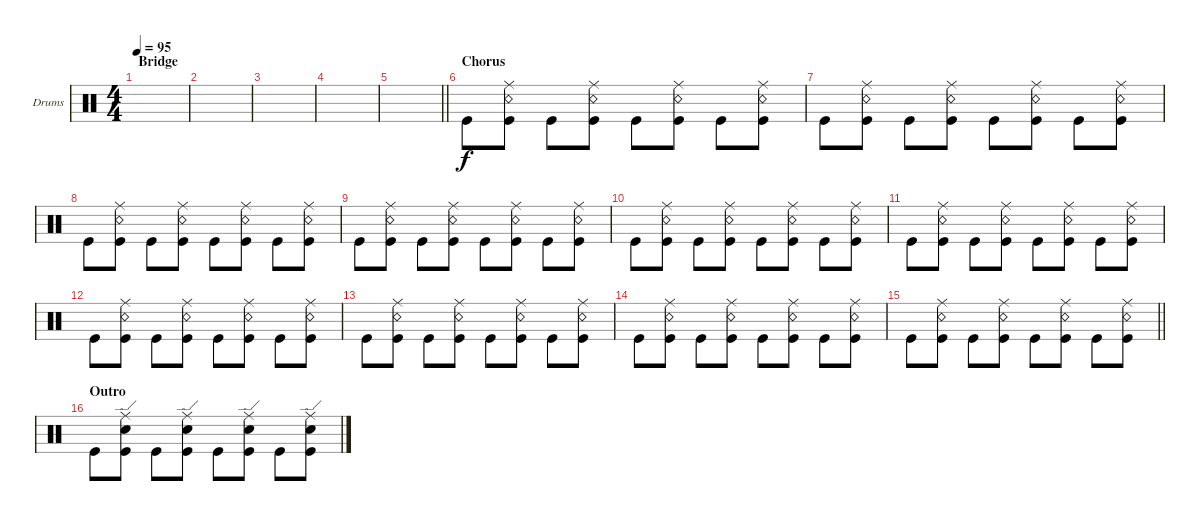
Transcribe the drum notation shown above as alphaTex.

\bracketExtendMode groupsimilarinstruments
\firstSystemTrackNameOrientation horizontal
\otherSystemsTrackNameOrientation horizontal
\track ("Drumkit" "Drums") {instrument percussion}
\staff {score}
\articulation defaults
\ts (4 4)
\section ("" "Bridge")
\tempo 95
\clef neutral
\scale
0.333333
\ks c
|
\scale
0.333333 |
\scale
0.333333 |
\scale
0.333333 |
\scale
0.333333
\barLineRight lightlight
|
\section ("" "Chorus")
\scale
0.333333 "Kick (hit)".8 ("Kick (hit)" "Snare (rim shot)" "Ride (middle)").8 "Kick (hit)".8 ("Kick (hit)" "Snare (rim shot)" "Ride (middle)").8 "Kick (hit)".8 ("Kick (hit)" "Snare (rim shot)" "Ride (middle)").8 "Kick (hit)".8 ("Kick (hit)" "Snare (rim shot)" "Ride (middle)").8 |
\scale
0.333333 "Kick (hit)".8 ("Kick (hit)" "Snare (rim shot)" "Ride (middle)").8 "Kick (hit)".8 ("Kick (hit)" "Snare (rim shot)" "Ride (middle)").8 "Kick (hit)".8 ("Kick (hit)" "Snare (rim shot)" "Ride (middle)").8 "Kick (hit)".8 ("Kick (hit)" "Snare (rim shot)" "Ride (middle)").8 |
"Kick (hit)".8 ("Kick (hit)" "Snare (rim shot)" "Ride (middle)").8 "Kick (hit)".8 ("Kick (hit)" "Snare (rim shot)" "Ride (middle)").8 "Kick (hit)".8 ("Kick (hit)" "Snare (rim shot)" "Ride (middle)").8 "Kick (hit)".8 ("Kick (hit)" "Snare (rim shot)" "Ride (middle)").8 |
"Kick (hit)".8 ("Kick (hit)" "Snare (rim shot)" "Ride (middle)").8 "Kick (hit)".8 ("Kick (hit)" "Snare (rim shot)" "Ride (middle)").8 "Kick (hit)".8 ("Kick (hit)" "Snare (rim shot)" "Ride (middle)").8 "Kick (hit)".8 ("Kick (hit)" "Snare (rim shot)" "Ride (middle)").8 |
"Kick (hit)".8 ("Kick (hit)" "Snare (rim shot)" "Ride (middle)").8 "Kick (hit)".8 ("Kick (hit)" "Snare (rim shot)" "Ride (middle)").8 "Kick (hit)".8 ("Kick (hit)" "Snare (rim shot)" "Ride (middle)").8 "Kick (hit)".8 ("Kick (hit)" "Snare (rim shot)" "Ride (middle)").8 |
\scale
0.333333 "Kick (hit)".8 ("Kick (hit)" "Snare (rim shot)" "Ride (middle)").8 "Kick (hit)".8 ("Kick (hit)" "Snare (rim shot)" "Ride (middle)").8 "Kick (hit)".8 ("Kick (hit)" "Snare (rim shot)" "Ride (middle)").8 "Kick (hit)".8 ("Kick (hit)" "Snare (rim shot)" "Ride (middle)").8 |
\scale
0.333333 "Kick (hit)".8 ("Kick (hit)" "Snare (rim shot)" "Ride (middle)").8 "Kick (hit)".8 ("Kick (hit)" "Snare (rim shot)" "Ride (middle)").8 "Kick (hit)".8 ("Kick (hit)" "Snare (rim shot)" "Ride (middle)").8 "Kick (hit)".8 ("Kick (hit)" "Snare (rim shot)" "Ride (middle)").8 |
\scale
0.333333 "Kick (hit)".8 ("Kick (hit)" "Snare (rim shot)" "Ride (middle)").8 "Kick (hit)".8 ("Kick (hit)" "Snare (rim shot)" "Ride (middle)").8 "Kick (hit)".8 ("Kick (hit)" "Snare (rim shot)" "Ride (middle)").8 "Kick (hit)".8 ("Kick (hit)" "Snare (rim shot)" "Ride (middle)").8 |
\scale
0.333333 "Kick (hit)".8 ("Kick (hit)" "Snare (rim shot)" "Ride (middle)").8 "Kick (hit)".8 ("Kick (hit)" "Snare (rim shot)" "Ride (middle)").8 "Kick (hit)".8 ("Kick (hit)" "Snare (rim shot)" "Ride (middle)").8 "Kick (hit)".8 ("Kick (hit)" "Snare (rim shot)" "Ride (middle)").8 |
\scale
0.333333
\barLineRight lightlight "Kick (hit)".8
("Kick (hit)" "Snare (rim shot)" "Ride (middle)").8 "Kick (hit)".8 ("Kick (hit)" "Snare (rim shot)" "Ride (middle)").8 "Kick (hit)".8 ("Kick (hit)" "Snare (rim shot)" "Ride (middle)").8 "Kick (hit)".8 ("Kick (hit)" "Snare (rim shot)" "Ride (middle)").8 |
\section ("" "Outro")
\scale
0.333333 "Kick (hit)".8 ("Kick (hit)" "Snare (hit) 2" "Ride (edge)").8 "Kick (hit)".8 ("Kick (hit)" "Snare (hit) 2" "Ride (edge)").8 "Kick (hit)".8 ("Kick (hit)" "Snare (hit) 2" "Ride (edge)").8 "Kick (hit)".8 ("Kick (hit)" "Snare (hit) 2" "Ride (edge)").8
